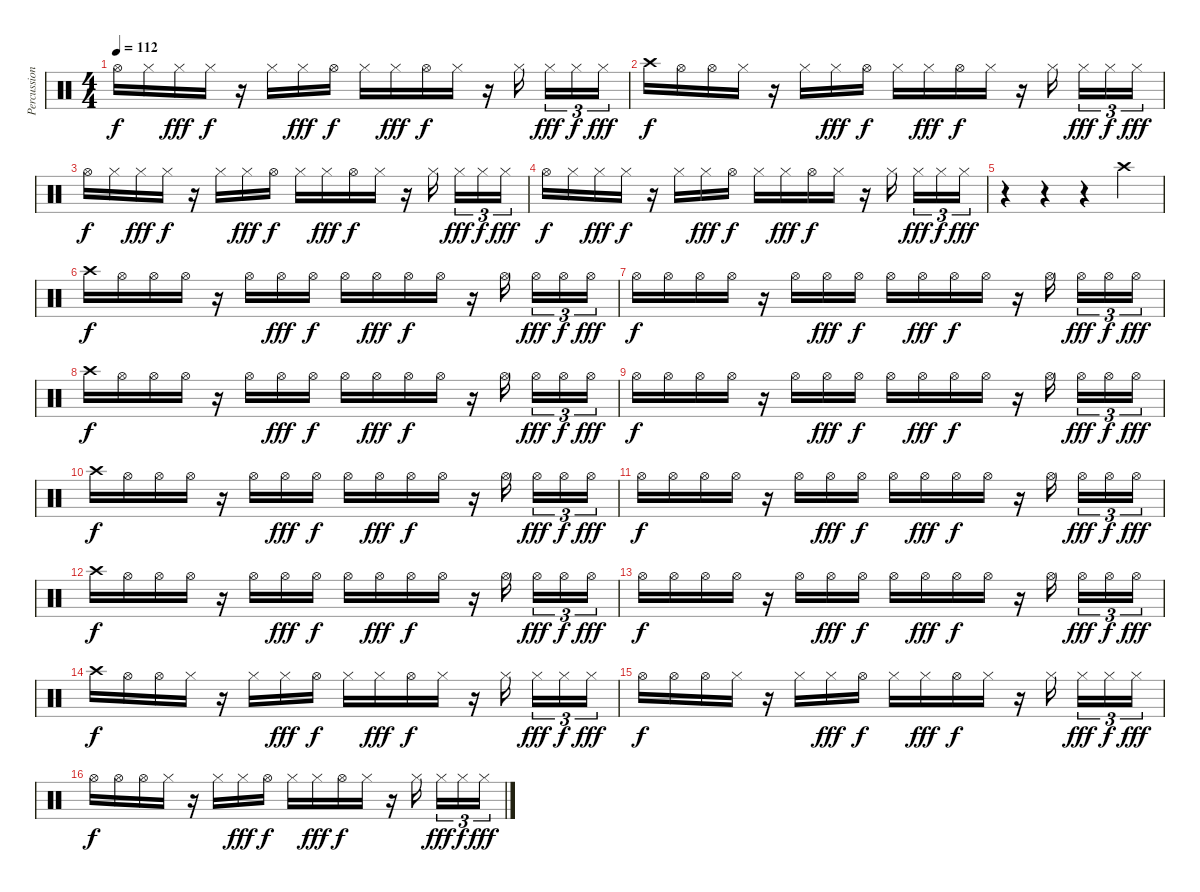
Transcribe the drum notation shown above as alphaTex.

\track ("Percussion" "Percussion") {instrument percussion}
\staff {score}
\articulation defaults
\ts (4 4)
\tempo 112
\clef neutral
\ks c "Hi-Hat (open)".16{dy f} "Hi-Hat (closed)".16 "Hi-Hat (closed)".16{dy fff} "Hi-Hat (closed)".16{dy f}
r.16 "Hi-Hat (closed)".16 "Hi-Hat (closed)".16{dy fff} "Hi-Hat (open)".16{dy f} "Hi-Hat (closed)".16 "Hi-Hat (closed)".16{dy fff} "Hi-Hat (open)".16{dy f} "Hi-Hat (closed)".16 r.16 "Hi-Hat (closed)".16{beam splitsecondary} "Hi-Hat (closed)".16{tu (3 2) dy fff} "Hi-Hat (closed)".16{tu (3 2) dy f} "Hi-Hat (closed)".16{tu (3 2) dy fff} |
"Crash high (hit)".16{dy f} "Hi-Hat (open)".16 "Hi-Hat (open)".16 "Hi-Hat (closed)".16 r.16 "Hi-Hat (closed)".16 "Hi-Hat (closed)".16{dy fff} "Hi-Hat (open)".16{dy f} "Hi-Hat (closed)".16 "Hi-Hat (closed)".16{dy fff} "Hi-Hat (open)".16{dy f} "Hi-Hat (closed)".16 r.16 "Hi-Hat (closed)".16{beam splitsecondary} "Hi-Hat (closed)".16{tu (3 2) dy fff} "Hi-Hat (closed)".16{tu (3 2) dy f} "Hi-Hat (closed)".16{tu (3 2) dy fff} |
"Hi-Hat (open)".16{dy f} "Hi-Hat (closed)".16 "Hi-Hat (closed)".16{dy fff} "Hi-Hat (closed)".16{dy f} r.16 "Hi-Hat (closed)".16 "Hi-Hat (closed)".16{dy fff} "Hi-Hat (open)".16{dy f} "Hi-Hat (closed)".16 "Hi-Hat (closed)".16{dy fff} "Hi-Hat (open)".16{dy f} "Hi-Hat (closed)".16 r.16 "Hi-Hat (closed)".16{beam splitsecondary} "Hi-Hat (closed)".16{tu (3 2) dy fff} "Hi-Hat (closed)".16{tu (3 2) dy f} "Hi-Hat (closed)".16{tu (3 2) dy fff} |
"Hi-Hat (open)".16{dy f} "Hi-Hat (closed)".16 "Hi-Hat (closed)".16{dy fff} "Hi-Hat (closed)".16{dy f} r.16 "Hi-Hat (closed)".16 "Hi-Hat (closed)".16{dy fff} "Hi-Hat (open)".16{dy f} "Hi-Hat (closed)".16 "Hi-Hat (closed)".16{dy fff} "Hi-Hat (open)".16{dy f} "Hi-Hat (closed)".16 r.16 "Hi-Hat (closed)".16{beam splitsecondary} "Hi-Hat (closed)".16{tu (3 2) dy fff} "Hi-Hat (closed)".16{tu (3 2) dy f} "Hi-Hat (closed)".16{tu (3 2) dy fff} |
r.4 r.4 r.4 "Crash high (hit)".4 |
"Crash high (hit)".16{dy f} "Hi-Hat (open)".16 "Hi-Hat (open)".16 "Hi-Hat (open)".16 r.16 "Hi-Hat (open)".16 "Hi-Hat (open)".16{dy fff} "Hi-Hat (open)".16{dy f} "Hi-Hat (open)".16 "Hi-Hat (open)".16{dy fff} "Hi-Hat (open)".16{dy f} "Hi-Hat (open)".16 r.16 "Hi-Hat (open)".16{beam splitsecondary} "Hi-Hat (open)".16{tu (3 2) dy fff} "Hi-Hat (open)".16{tu (3 2) dy f} "Hi-Hat (open)".16{tu (3 2) dy fff} |
"Hi-Hat (open)".16{dy f} "Hi-Hat (open)".16 "Hi-Hat (open)".16 "Hi-Hat (open)".16 r.16 "Hi-Hat (open)".16 "Hi-Hat (open)".16{dy fff} "Hi-Hat (open)".16{dy f} "Hi-Hat (open)".16 "Hi-Hat (open)".16{dy fff} "Hi-Hat (open)".16{dy f} "Hi-Hat (open)".16 r.16 "Hi-Hat (open)".16{beam splitsecondary} "Hi-Hat (open)".16{tu (3 2) dy fff} "Hi-Hat (open)".16{tu (3 2) dy f} "Hi-Hat (open)".16{tu (3 2) dy fff} |
"Crash high (hit)".16{dy f} "Hi-Hat (open)".16 "Hi-Hat (open)".16 "Hi-Hat (open)".16 r.16 "Hi-Hat (open)".16 "Hi-Hat (open)".16{dy fff} "Hi-Hat (open)".16{dy f} "Hi-Hat (open)".16 "Hi-Hat (open)".16{dy fff} "Hi-Hat (open)".16{dy f} "Hi-Hat (open)".16 r.16 "Hi-Hat (open)".16{beam splitsecondary} "Hi-Hat (open)".16{tu (3 2) dy fff} "Hi-Hat (open)".16{tu (3 2) dy f} "Hi-Hat (open)".16{tu (3 2) dy fff} |
"Hi-Hat (open)".16{dy f} "Hi-Hat (open)".16 "Hi-Hat (open)".16 "Hi-Hat (open)".16 r.16 "Hi-Hat (open)".16 "Hi-Hat (open)".16{dy fff} "Hi-Hat (open)".16{dy f} "Hi-Hat (open)".16 "Hi-Hat (open)".16{dy fff} "Hi-Hat (open)".16{dy f} "Hi-Hat (open)".16 r.16 "Hi-Hat (open)".16{beam splitsecondary} "Hi-Hat (open)".16{tu (3 2) dy fff} "Hi-Hat (open)".16{tu (3 2) dy f} "Hi-Hat (open)".16{tu (3 2) dy fff} |
"Crash high (hit)".16{dy f} "Hi-Hat (open)".16 "Hi-Hat (open)".16 "Hi-Hat (open)".16 r.16 "Hi-Hat (open)".16 "Hi-Hat (open)".16{dy fff} "Hi-Hat (open)".16{dy f} "Hi-Hat (open)".16 "Hi-Hat (open)".16{dy fff} "Hi-Hat (open)".16{dy f} "Hi-Hat (open)".16 r.16 "Hi-Hat (open)".16{beam splitsecondary} "Hi-Hat (open)".16{tu (3 2) dy fff} "Hi-Hat (open)".16{tu (3 2) dy f} "Hi-Hat (open)".16{tu (3 2) dy fff} |
"Hi-Hat (open)".16{dy f} "Hi-Hat (open)".16 "Hi-Hat (open)".16 "Hi-Hat (open)".16 r.16 "Hi-Hat (open)".16 "Hi-Hat (open)".16{dy fff} "Hi-Hat (open)".16{dy f} "Hi-Hat (open)".16 "Hi-Hat (open)".16{dy fff} "Hi-Hat (open)".16{dy f} "Hi-Hat (open)".16 r.16 "Hi-Hat (open)".16{beam splitsecondary} "Hi-Hat (open)".16{tu (3 2) dy fff} "Hi-Hat (open)".16{tu (3 2) dy f} "Hi-Hat (open)".16{tu (3 2) dy fff} |
"Crash high (hit)".16{dy f} "Hi-Hat (open)".16 "Hi-Hat (open)".16 "Hi-Hat (open)".16 r.16 "Hi-Hat (open)".16 "Hi-Hat (open)".16{dy fff} "Hi-Hat (open)".16{dy f} "Hi-Hat (open)".16 "Hi-Hat (open)".16{dy fff} "Hi-Hat (open)".16{dy f} "Hi-Hat (open)".16 r.16 "Hi-Hat (open)".16{beam splitsecondary} "Hi-Hat (open)".16{tu (3 2) dy fff} "Hi-Hat (open)".16{tu (3 2) dy f} "Hi-Hat (open)".16{tu (3 2) dy fff} |
"Hi-Hat (open)".16{dy f} "Hi-Hat (open)".16 "Hi-Hat (open)".16 "Hi-Hat (open)".16 r.16 "Hi-Hat (open)".16 "Hi-Hat (open)".16{dy fff} "Hi-Hat (open)".16{dy f} "Hi-Hat (open)".16 "Hi-Hat (open)".16{dy fff} "Hi-Hat (open)".16{dy f} "Hi-Hat (open)".16 r.16 "Hi-Hat (open)".16{beam splitsecondary} "Hi-Hat (open)".16{tu (3 2) dy fff} "Hi-Hat (open)".16{tu (3 2) dy f} "Hi-Hat (open)".16{tu (3 2) dy fff} |
"Crash high (hit)".16{dy f} "Hi-Hat (open)".16 "Hi-Hat (open)".16 "Hi-Hat (closed)".16 r.16 "Hi-Hat (closed)".16 "Hi-Hat (closed)".16{dy fff} "Hi-Hat (open)".16{dy f} "Hi-Hat (closed)".16 "Hi-Hat (closed)".16{dy fff} "Hi-Hat (open)".16{dy f} "Hi-Hat (closed)".16 r.16 "Hi-Hat (closed)".16{beam splitsecondary} "Hi-Hat (closed)".16{tu (3 2) dy fff} "Hi-Hat (closed)".16{tu (3 2) dy f} "Hi-Hat (closed)".16{tu (3 2) dy fff} |
"Hi-Hat (open)".16{dy f} "Hi-Hat (open)".16 "Hi-Hat (open)".16 "Hi-Hat (closed)".16 r.16 "Hi-Hat (closed)".16 "Hi-Hat (closed)".16{dy fff} "Hi-Hat (open)".16{dy f} "Hi-Hat (closed)".16 "Hi-Hat (closed)".16{dy fff} "Hi-Hat (open)".16{dy f} "Hi-Hat (closed)".16 r.16 "Hi-Hat (closed)".16{beam splitsecondary} "Hi-Hat (closed)".16{tu (3 2) dy fff} "Hi-Hat (closed)".16{tu (3 2) dy f} "Hi-Hat (closed)".16{tu (3 2) dy fff} |
"Hi-Hat (open)".16{dy f} "Hi-Hat (open)".16 "Hi-Hat (open)".16 "Hi-Hat (closed)".16 r.16 "Hi-Hat (closed)".16 "Hi-Hat (closed)".16{dy fff} "Hi-Hat (open)".16{dy f} "Hi-Hat (closed)".16 "Hi-Hat (closed)".16{dy fff} "Hi-Hat (open)".16{dy f} "Hi-Hat (closed)".16 r.16 "Hi-Hat (closed)".16{beam splitsecondary} "Hi-Hat (closed)".16{tu (3 2) dy fff} "Hi-Hat (closed)".16{tu (3 2) dy f} "Hi-Hat (closed)".16{tu (3 2) dy fff}
